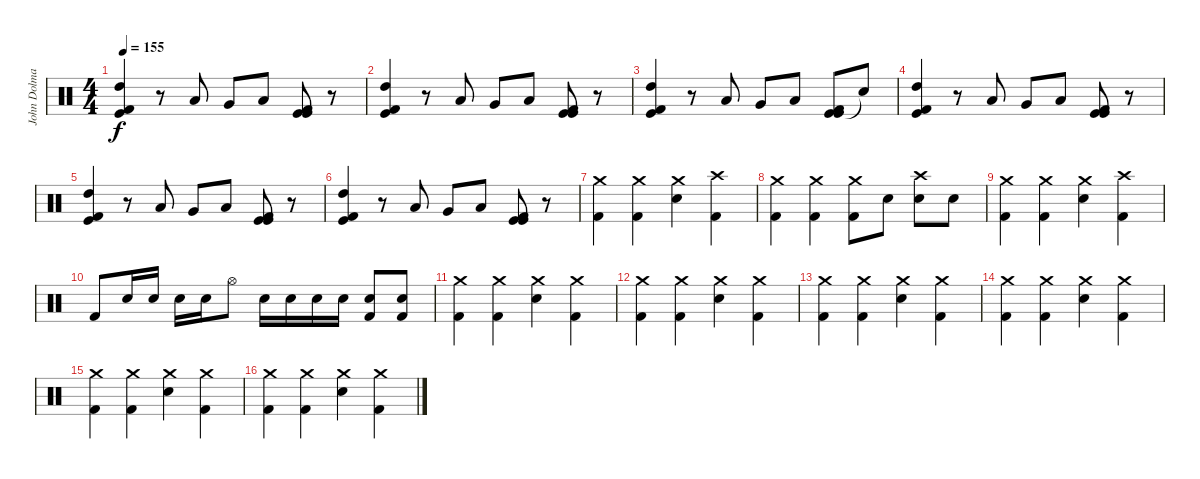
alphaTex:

\track ("John Dolmayan - Drums" "John Dolma") {instrument percussion}
\staff {score}
\articulation defaults
\ts (4 4)
\tempo 155
\clef neutral
\ks c
("Kick (hit)" "Kick (hit) 2" "High Tom (hit)").4{dy f} r.8 "Low Tom (hit)".8 "Very Low Tom (hit)".8 "Low Tom (hit)".8 ("Kick (hit)" "Kick (hit)" "Kick (hit) 2").8 r.8 |
("Kick (hit) 2" "Kick (hit)" "High Tom (hit)").4 r.8 "Low Tom (hit)".8 "Very Low Tom (hit)".8 "Low Tom (hit)".8 ("Kick (hit)" "Kick (hit)" "Kick (hit) 2").8 r.8 |
("Kick (hit)" "Kick (hit) 2" "High Tom (hit)").4 r.8 "Low Tom (hit)".8 "Very Low Tom (hit)".8 "Low Tom (hit)".8 ("Kick (hit)" "Kick (hit)" "Kick (hit) 2").8 "Snare (hit)"{t}.8 |
("Kick (hit)" "Kick (hit) 2" "High Tom (hit)").4 r.8 "Low Tom (hit)".8 "Very Low Tom (hit)".8 "Low Tom (hit)".8 ("Kick (hit)" "Kick (hit)" "Kick (hit) 2").8 r.8 |
("Kick (hit)" "Kick (hit) 2" "High Tom (hit)").4 r.8 "Low Tom (hit)".8 "Very Low Tom (hit)".8 "Low Tom (hit)".8 ("Kick (hit)" "Kick (hit)" "Kick (hit) 2").8 r.8 |
("Kick (hit)" "Kick (hit) 2" "High Tom (hit)").4 r.8 "Low Tom (hit)".8 "Very Low Tom (hit)".8 "Low Tom (hit)".8 ("Kick (hit)" "Kick (hit)" "Kick (hit) 2").8 r.8 |
("Crash medium (hit)" "Kick (hit) 2").4 ("Crash medium (hit)" "Kick (hit) 2").4 ("Crash medium (hit)" "Electric Snare (hit)").4 ("Crash high (hit)" "Kick (hit) 2").4 |
("Crash medium (hit)" "Kick (hit) 2").4 ("Crash medium (hit)" "Kick (hit) 2").4 ("Crash medium (hit)" "Kick (hit) 2").8 "Electric Snare (hit)".8 ("Crash high (hit)" "Electric Snare (hit)").8 "Electric Snare (hit)".8 |
("Crash medium (hit)" "Kick (hit) 2").4 ("Crash medium (hit)" "Kick (hit) 2").4 ("Crash medium (hit)" "Electric Snare (hit)").4 ("Crash high (hit)" "Kick (hit) 2").4 |
"Kick (hit) 2".8 "Electric Snare (hit)".16 "Electric Snare (hit)".16 "Electric Snare (hit)".16 "Electric Snare (hit)".16 "Hi-Hat (open)".8 "Electric Snare (hit)".16 "Electric Snare (hit)".16 "Electric Snare (hit)".16 "Electric Snare (hit)".16 ("Kick (hit) 2" "Electric Snare (hit)").8 ("Kick (hit) 2" "Electric Snare (hit)").8 |
("Crash medium (hit)" "Kick (hit) 2").4 ("Crash medium (hit)" "Kick (hit) 2").4 ("Crash medium (hit)" "Electric Snare (hit)").4 ("Crash medium (hit)" "Kick (hit) 2").4 |
("Crash medium (hit)" "Kick (hit) 2").4 ("Crash medium (hit)" "Kick (hit) 2").4 ("Crash medium (hit)" "Electric Snare (hit)").4 ("Crash medium (hit)" "Kick (hit) 2").4 |
("Crash medium (hit)" "Kick (hit) 2").4 ("Crash medium (hit)" "Kick (hit) 2").4 ("Crash medium (hit)" "Electric Snare (hit)").4 ("Crash medium (hit)" "Kick (hit) 2").4 |
("Crash medium (hit)" "Kick (hit) 2").4 ("Crash medium (hit)" "Kick (hit) 2").4 ("Crash medium (hit)" "Electric Snare (hit)").4 ("Crash medium (hit)" "Kick (hit) 2").4 |
("Crash medium (hit)" "Kick (hit) 2").4 ("Crash medium (hit)" "Kick (hit) 2").4 ("Crash medium (hit)" "Electric Snare (hit)").4 ("Crash medium (hit)" "Kick (hit) 2").4 |
("Crash medium (hit)" "Kick (hit) 2").4 ("Crash medium (hit)" "Kick (hit) 2").4 ("Crash medium (hit)" "Electric Snare (hit)").4 ("Crash medium (hit)" "Kick (hit) 2").4
